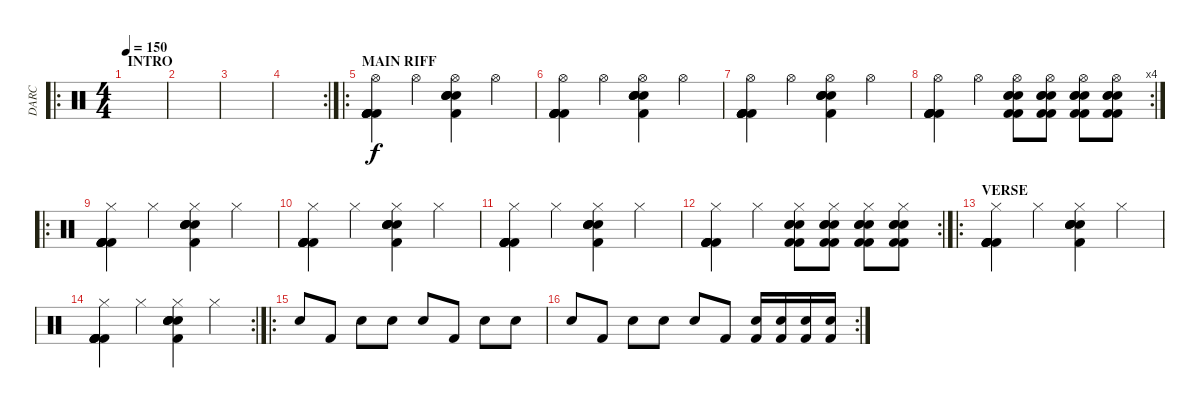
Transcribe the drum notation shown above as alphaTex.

\track ("DARC" "DARC") {instrument percussion}
\staff {score}
\articulation defaults
\ro
\ts (4 4)
\section ("" "INTRO")
\tempo 150
\clef neutral
\ks c
|
|
|
\rc 2
|
\ro
\section ("" "MAIN RIFF")
("Hi-Hat (open)" "Kick (hit) 2" "Kick (hit) 2" "Kick (hit) 2" "Kick (hit) 2" "Kick (hit) 2").4 "Hi-Hat (open)".4 ("Hi-Hat (open)" "Electric Snare (hit)" "Electric Snare (hit)" "Electric Snare (hit)" "Electric Snare (hit)" "Kick (hit) 2").4 "Hi-Hat (open)".4 |
("Hi-Hat (open)" "Kick (hit) 2" "Kick (hit) 2" "Kick (hit) 2" "Kick (hit) 2" "Kick (hit) 2").4 "Hi-Hat (open)".4 ("Hi-Hat (open)" "Electric Snare (hit)" "Electric Snare (hit)" "Electric Snare (hit)" "Electric Snare (hit)" "Kick (hit) 2").4 "Hi-Hat (open)".4 |
("Hi-Hat (open)" "Kick (hit) 2" "Kick (hit) 2" "Kick (hit) 2" "Kick (hit) 2" "Kick (hit) 2").4 "Hi-Hat (open)".4 ("Hi-Hat (open)" "Electric Snare (hit)" "Electric Snare (hit)" "Electric Snare (hit)" "Electric Snare (hit)" "Kick (hit) 2").4 "Hi-Hat (open)".4 |
\rc 4
("Hi-Hat (open)" "Kick (hit) 2" "Kick (hit) 2" "Kick (hit) 2" "Kick (hit) 2" "Kick (hit) 2").4 "Hi-Hat (open)".4 ("Hi-Hat (open)" "Electric Snare (hit)" "Electric Snare (hit)" "Electric Snare (hit)" "Kick (hit) 2" "Kick (hit) 2").8 ("Hi-Hat (open)" "Electric Snare (hit)" "Electric Snare (hit)" "Electric Snare (hit)" "Kick (hit) 2" "Kick (hit) 2").8 ("Hi-Hat (open)" "Electric Snare (hit)" "Electric Snare (hit)" "Electric Snare (hit)" "Kick (hit) 2" "Kick (hit) 2").8 ("Hi-Hat (open)" "Electric Snare (hit)" "Electric Snare (hit)" "Electric Snare (hit)" "Kick (hit) 2" "Kick (hit) 2").8 |
\ro
("Hi-Hat (closed)" "Kick (hit) 2" "Kick (hit) 2" "Kick (hit) 2" "Kick (hit) 2" "Kick (hit) 2").4 "Hi-Hat (closed)".4 ("Hi-Hat (closed)" "Electric Snare (hit)" "Electric Snare (hit)" "Electric Snare (hit)" "Electric Snare (hit)" "Kick (hit) 2").4 "Hi-Hat (closed)".4 |
("Hi-Hat (closed)" "Kick (hit) 2" "Kick (hit) 2" "Kick (hit) 2" "Kick (hit) 2" "Kick (hit) 2").4 "Hi-Hat (closed)".4 ("Hi-Hat (closed)" "Electric Snare (hit)" "Electric Snare (hit)" "Electric Snare (hit)" "Electric Snare (hit)" "Kick (hit) 2").4 "Hi-Hat (closed)".4 |
("Hi-Hat (closed)" "Kick (hit) 2" "Kick (hit) 2" "Kick (hit) 2" "Kick (hit) 2" "Kick (hit) 2").4 "Hi-Hat (closed)".4 ("Hi-Hat (closed)" "Electric Snare (hit)" "Electric Snare (hit)" "Electric Snare (hit)" "Electric Snare (hit)" "Kick (hit) 2").4 "Hi-Hat (closed)".4 |
\rc 2
("Hi-Hat (closed)" "Kick (hit) 2" "Kick (hit) 2" "Kick (hit) 2" "Kick (hit) 2" "Kick (hit) 2").4 "Hi-Hat (closed)".4 ("Hi-Hat (closed)" "Electric Snare (hit)" "Electric Snare (hit)" "Electric Snare (hit)" "Kick (hit) 2" "Kick (hit) 2").8 ("Hi-Hat (closed)" "Electric Snare (hit)" "Electric Snare (hit)" "Electric Snare (hit)" "Kick (hit) 2" "Kick (hit) 2").8 ("Hi-Hat (closed)" "Electric Snare (hit)" "Electric Snare (hit)" "Electric Snare (hit)" "Kick (hit) 2" "Kick (hit) 2").8 ("Hi-Hat (closed)" "Electric Snare (hit)" "Electric Snare (hit)" "Electric Snare (hit)" "Kick (hit) 2" "Kick (hit) 2").8 |
\ro
\section ("" "VERSE")
("Hi-Hat (closed)" "Kick (hit) 2" "Kick (hit) 2" "Kick (hit) 2" "Kick (hit) 2" "Kick (hit) 2").4 "Hi-Hat (closed)".4 ("Hi-Hat (closed)" "Electric Snare (hit)" "Electric Snare (hit)" "Electric Snare (hit)" "Electric Snare (hit)" "Kick (hit) 2").4 "Hi-Hat (closed)".4 |
\rc 2
("Hi-Hat (closed)" "Kick (hit) 2" "Kick (hit) 2" "Kick (hit) 2" "Kick (hit) 2" "Kick (hit) 2").4 "Hi-Hat (closed)".4 ("Hi-Hat (closed)" "Electric Snare (hit)" "Electric Snare (hit)" "Electric Snare (hit)" "Electric Snare (hit)" "Kick (hit) 2").4 "Hi-Hat (closed)".4 |
\ro "Electric Snare (hit)".8 "Kick (hit) 2".8 "Electric Snare (hit)".8 "Electric Snare (hit)".8 "Electric Snare (hit)".8 "Kick (hit) 2".8 "Electric Snare (hit)".8 "Electric Snare (hit)".8
|
\rc 2 "Electric Snare (hit)".8 "Kick (hit) 2".8 "Electric Snare (hit)".8 "Electric Snare (hit)".8 "Electric Snare (hit)".8 "Kick (hit) 2".8
("Kick (hit) 2" "Electric Snare (hit)").16 ("Kick (hit) 2" "Electric Snare (hit)").16 ("Kick (hit) 2" "Electric Snare (hit)").16 ("Kick (hit) 2" "Electric Snare (hit)").16
